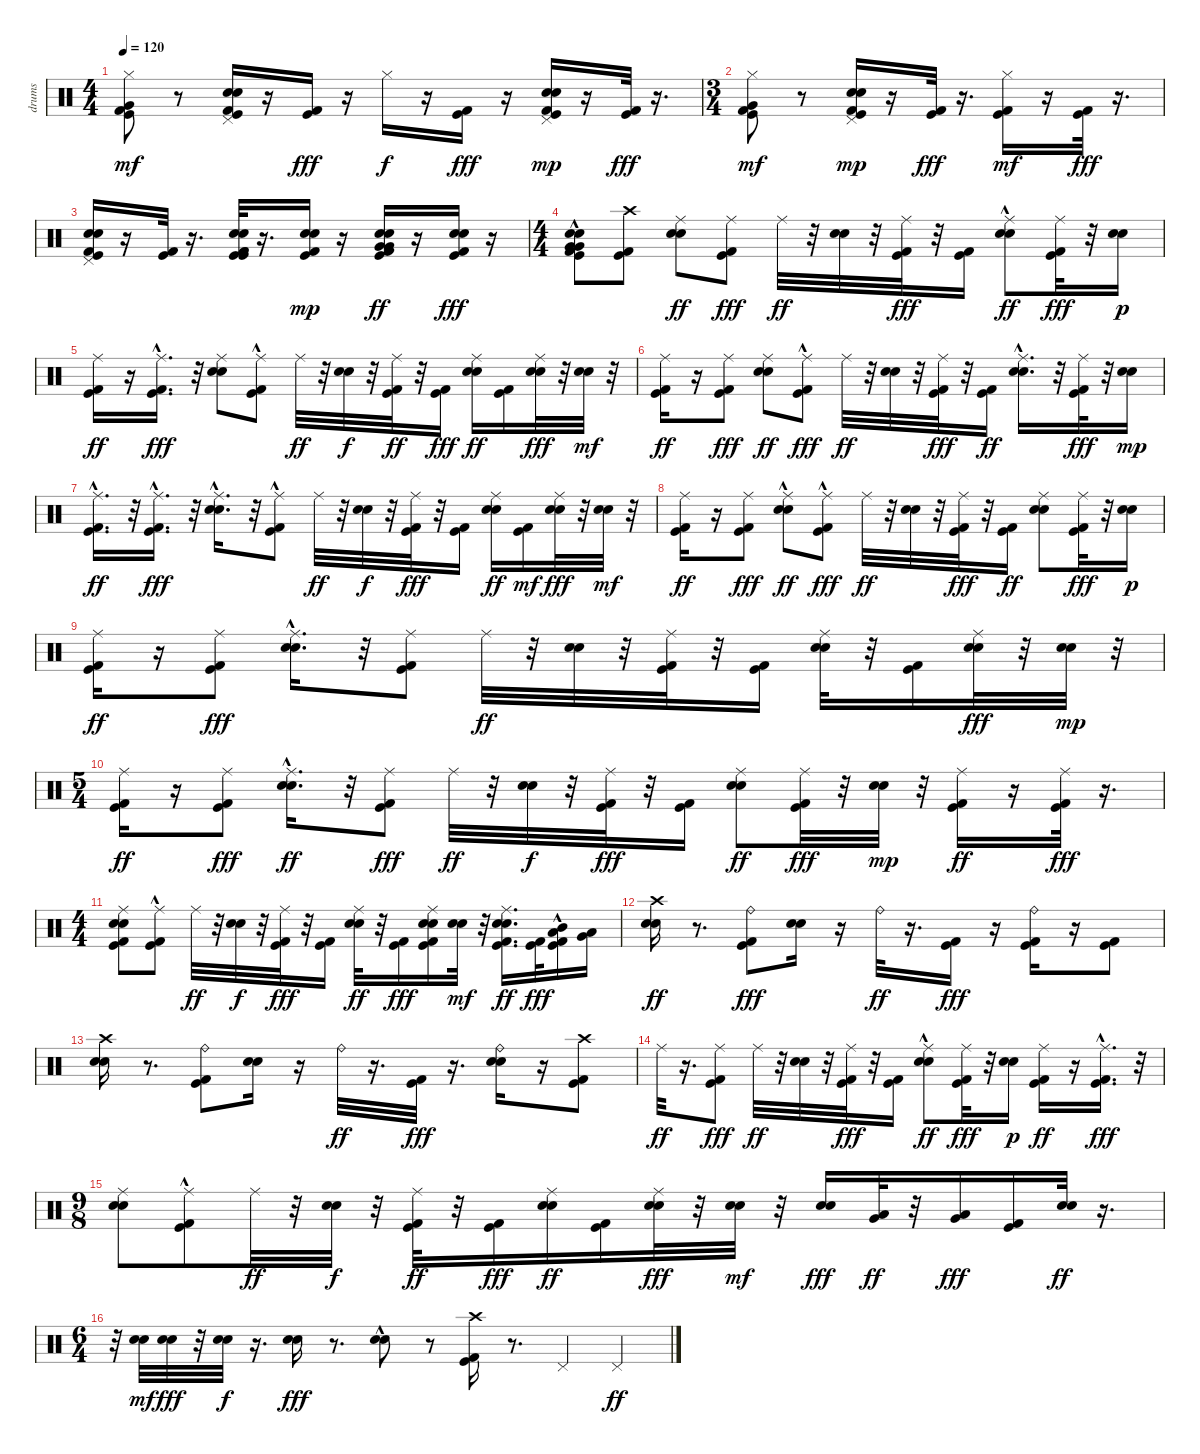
\track ("drums" "drums") {instrument percussion}
\staff {score}
\articulation defaults
\ts (4 4)
\tempo 120
\clef neutral
\ks c
("Very Low Tom (hit)" "Kick (hit)" "Kick (hit) 2" "Hi-Hat (closed)").8{dy mf} r.8 ("Electric Snare (hit)" "Snare (hit) 2" "Kick (hit)" "Kick (hit) 2" "Pedal Hi-Hat (hit)").16 r.16 ("Kick (hit)" "Kick (hit) 2").16{dy fff} r.16 "Hi-Hat (closed)".16{dy f} r.16 ("Kick (hit) 2" "Kick (hit)").16{dy fff} r.16 ("Snare (hit) 2" "Electric Snare (hit)" "Kick (hit) 2" "Kick (hit)" "Pedal Hi-Hat (hit)").16{dy mp} r.16 ("Kick (hit)" "Kick (hit) 2").32{dy fff} r.16{d} |
\ts (3 4)
("Kick (hit) 2" "Kick (hit)" "Very Low Tom (hit)" "Hi-Hat (closed)").8{dy mf} r.8 ("Snare (hit) 2" "Electric Snare (hit)" "Kick (hit) 2" "Kick (hit)" "Pedal Hi-Hat (hit)").16{dy mp} r.16 ("Kick (hit)" "Kick (hit) 2").32{dy fff} r.16{d} ("Kick (hit)" "Kick (hit) 2" "Hi-Hat (closed)").16{dy mf} r.16 ("Kick (hit)" "Kick (hit) 2").32{dy fff} r.16{d} |
("Pedal Hi-Hat (hit)" "Electric Snare (hit)" "Snare (hit) 2" "Kick (hit) 2" "Kick (hit)").16 r.16 ("Kick (hit) 2" "Kick (hit)").32 r.16{d} ("Electric Snare (hit)" "Kick (hit) 2" "Snare (hit) 2" "Kick (hit)" "Kick (hit) 2" "Kick (hit)").32 r.16{d} ("Electric Snare (hit)" "Snare (hit) 2" "Kick (hit)" "Kick (hit) 2").16{dy mp} r.16 ("Very Low Tom (hit)" "Electric Snare (hit)" "Snare (hit) 2" "Very Low Tom (hit)" "Kick (hit)" "Kick (hit) 2").16{dy ff} r.16 ("Snare (hit) 2" "Electric Snare (hit)" "Kick (hit) 2" "Kick (hit)").16{dy fff} r.16 |
\ts (4 4)
("Very Low Tom (hit)"{hac} "Kick (hit) 2"{hac} "Kick (hit)"{hac} "Snare (hit) 2"{hac} "Electric Snare (hit)" "Very Low Tom (hit)"{hac}).8 ("Kick (hit) 2" "Kick (hit)" "Crash high (hit)").8 ("Snare (hit) 2" "Electric Snare (hit)" "Ride (middle)").8{dy ff} ("Kick (hit) 2" "Kick (hit)" "Ride (middle)").8{dy fff} "Ride (middle)".32{dy ff} r.32 ("Snare (hit) 2" "Electric Snare (hit)").32 r.32 ("Kick (hit) 2" "Kick (hit)" "Ride (middle)").32{dy fff} r.32 ("Kick (hit) 2" "Kick (hit)").16 ("Electric Snare (hit)" "Snare (hit) 2"{hac} "Ride (middle)").8{dy ff} ("Kick (hit) 2" "Kick (hit)" "Ride (middle)").32{dy fff} r.32 ("Snare (hit) 2" "Electric Snare (hit)").16{dy p} |
("Kick (hit) 2" "Kick (hit)" "Ride (middle)").16{dy ff} r.16 ("Kick (hit) 2"{hac} "Kick (hit)"{hac} "Ride (middle)").16{d dy fff} r.32 ("Snare (hit) 2" "Electric Snare (hit)" "Ride (middle)").8 ("Kick (hit) 2"{hac} "Kick (hit)"{hac} "Ride (middle)").8 "Ride (middle)".32{dy ff} r.32 ("Snare (hit) 2" "Electric Snare (hit)").32{dy f} r.32 ("Kick (hit)" "Kick (hit) 2" "Ride (middle)").32{dy ff} r.32 ("Kick (hit) 2" "Kick (hit)").16{dy fff} ("Electric Snare (hit)" "Snare (hit) 2" "Ride (middle)").16{dy ff} ("Kick (hit) 2" "Kick (hit)").16 ("Snare (hit) 2" "Electric Snare (hit)" "Ride (middle)").32{dy fff} r.32 ("Snare (hit) 2" "Electric Snare (hit)").32{dy mf} r.32 |
("Kick (hit) 2" "Kick (hit)" "Ride (middle)").16{dy ff} r.16 ("Kick (hit) 2" "Kick (hit)" "Ride (middle)").8{dy fff} ("Snare (hit) 2" "Electric Snare (hit)" "Ride (middle)").8{dy ff} ("Kick (hit)"{hac} "Kick (hit) 2"{hac} "Ride (middle)").8{dy fff} "Ride (middle)".32{dy ff} r.32 ("Snare (hit) 2" "Electric Snare (hit)").32 r.32 ("Kick (hit) 2" "Kick (hit)" "Ride (middle)").32{dy fff} r.32 ("Kick (hit) 2" "Kick (hit)").16{dy ff} ("Snare (hit) 2"{hac} "Electric Snare (hit)"{hac} "Ride (middle)").16{d} r.32 ("Kick (hit) 2" "Kick (hit)" "Ride (middle)").32{dy fff} r.32 ("Snare (hit) 2" "Electric Snare (hit)").16{dy mp} |
("Kick (hit) 2"{hac} "Kick (hit)"{hac} "Ride (middle)").16{d dy ff} r.32 ("Kick (hit) 2"{hac} "Kick (hit)"{hac} "Ride (middle)").16{d dy fff} r.32 ("Snare (hit) 2"{hac} "Electric Snare (hit)"{hac} "Ride (middle)").16{d} r.32 ("Kick (hit)"{hac} "Kick (hit) 2"{hac} "Ride (middle)").8 "Ride (middle)".32{dy ff} r.32 ("Snare (hit) 2" "Electric Snare (hit)").32{dy f} r.32 ("Kick (hit)" "Kick (hit) 2" "Ride (middle)").32{dy fff} r.32 ("Kick (hit) 2" "Kick (hit)").16 ("Electric Snare (hit)" "Snare (hit) 2" "Ride (middle)").16{dy ff} ("Kick (hit) 2" "Kick (hit)").16{dy mf} ("Snare (hit) 2" "Electric Snare (hit)" "Ride (middle)").32{dy fff} r.32 ("Snare (hit) 2" "Electric Snare (hit)").32{dy mf} r.32 |
("Kick (hit) 2" "Kick (hit)" "Ride (middle)").16{dy ff} r.16 ("Kick (hit) 2" "Kick (hit)" "Ride (middle)").8{dy fff} ("Electric Snare (hit)" "Snare (hit) 2"{hac} "Ride (middle)").8{dy ff} ("Kick (hit) 2"{hac} "Kick (hit)"{hac} "Ride (middle)").8{dy fff} "Ride (middle)".32{dy ff} r.32 ("Snare (hit) 2" "Electric Snare (hit)").32 r.32 ("Kick (hit) 2" "Kick (hit)" "Ride (middle)").32{dy fff} r.32 ("Kick (hit) 2" "Kick (hit)").16{dy ff} ("Snare (hit) 2" "Electric Snare (hit)" "Ride (middle)").8 ("Kick (hit) 2" "Kick (hit)" "Ride (middle)").32{dy fff} r.32 ("Electric Snare (hit)" "Snare (hit) 2").16{dy p} |
("Kick (hit) 2" "Kick (hit)" "Ride (middle)").16{dy ff} r.16 ("Kick (hit) 2" "Kick (hit)" "Ride (middle)").8{dy fff} ("Snare (hit) 2"{hac} "Electric Snare (hit)"{hac} "Ride (middle)").16{d} r.32 ("Kick (hit) 2" "Kick (hit)" "Ride (middle)").8 "Ride (middle)".32{dy ff} r.32 ("Snare (hit) 2" "Electric Snare (hit)").32 r.32 ("Kick (hit) 2" "Kick (hit)" "Ride (middle)").32 r.32 ("Kick (hit) 2" "Kick (hit)").16 ("Electric Snare (hit)" "Snare (hit) 2" "Ride (middle)").32 r.32 ("Kick (hit) 2" "Kick (hit)").16 ("Snare (hit) 2" "Electric Snare (hit)" "Ride (middle)").32{dy fff} r.32 ("Snare (hit) 2" "Electric Snare (hit)").32{dy mp} r.32 |
\ts (5 4)
("Kick (hit) 2" "Kick (hit)" "Ride (middle)").16{dy ff} r.16 ("Kick (hit) 2" "Kick (hit)" "Ride (middle)").8{dy fff} ("Snare (hit) 2"{hac} "Electric Snare (hit)"{hac} "Ride (middle)").16{d dy ff} r.32 ("Kick (hit)" "Kick (hit) 2" "Ride (middle)").8{dy fff} "Ride (middle)".32{dy ff} r.32 ("Snare (hit) 2" "Electric Snare (hit)").32{dy f} r.32 ("Kick (hit) 2" "Kick (hit)" "Ride (middle)").32{dy fff} r.32 ("Kick (hit) 2" "Kick (hit)").16 ("Snare (hit) 2" "Electric Snare (hit)" "Ride (middle)").8{dy ff} ("Kick (hit) 2" "Kick (hit)" "Ride (middle)").32{dy fff} r.32 ("Snare (hit) 2" "Electric Snare (hit)").32{dy mp} r.32 ("Kick (hit) 2" "Kick (hit)" "Ride (middle)").16{dy ff} r.16 ("Kick (hit)" "Kick (hit) 2" "Ride (middle)").32{dy fff} r.16{d} |
\ts (4 4)
("Kick (hit) 2" "Kick (hit)" "Snare (hit) 2" "Electric Snare (hit)" "Ride (middle)").8 ("Kick (hit) 2"{hac} "Kick (hit)"{hac} "Ride (middle)").8 "Ride (middle)".32{dy ff} r.32 ("Snare (hit) 2" "Electric Snare (hit)").32{dy f} r.32 ("Kick (hit) 2" "Kick (hit)" "Ride (middle)").32{dy fff} r.32 ("Kick (hit)" "Kick (hit) 2").16 ("Snare (hit) 2" "Electric Snare (hit)" "Ride (middle)").32{dy ff} r.32 ("Kick (hit) 2" "Kick (hit)").16{dy fff} ("Kick (hit)" "Kick (hit) 2" "Electric Snare (hit)" "Snare (hit) 2" "Ride (middle)").16 ("Snare (hit) 2" "Electric Snare (hit)").32{dy mf} r.32 ("Electric Snare (hit)" "Snare (hit) 2" "Kick (hit)" "Kick (hit) 2" "Ride (middle)").16{d dy ff} ("Kick (hit)" "Kick (hit) 2").32{dy fff} ("Mid Tom (hit)" "Low Tom (hit)" "Kick (hit) 2"{hac} "Kick (hit)").16 ("Low Floor Tom (hit)" "Very Low Tom (hit)").16 |
("Electric Snare (hit)" "Crash high (hit)" "Snare (hit) 2").16{dy ff} r.8{d} ("Ride (bell)" "Kick (hit) 2" "Kick (hit)").8{dy fff} ("Electric Snare (hit)" "Snare (hit) 2").16 r.16 "Ride (bell)".32{dy ff} r.16{d} ("Kick (hit) 2" "Kick (hit)").16{dy fff} r.16 ("Ride (bell)" "Kick (hit) 2" "Kick (hit)").16 r.16 ("Kick (hit) 2" "Kick (hit)").8 |
("Crash high (hit)" "Electric Snare (hit)" "Snare (hit) 2").16 r.8{d} ("Ride (bell)" "Kick (hit) 2" "Kick (hit)").8 ("Electric Snare (hit)" "Snare (hit) 2").16 r.16 "Ride (bell)".32{dy ff} r.16{d} ("Kick (hit)" "Kick (hit) 2").32{dy fff} r.16{d} ("Ride (bell)" "Snare (hit) 2" "Electric Snare (hit)").16 r.16 ("Kick (hit) 2" "Kick (hit)" "Crash high (hit)").8 |
"Ride (middle)".32{dy ff} r.16{d} ("Kick (hit) 2" "Kick (hit)" "Ride (middle)").8{dy fff} "Ride (middle)".32{dy ff} r.32 ("Snare (hit) 2" "Electric Snare (hit)").32 r.32 ("Kick (hit) 2" "Kick (hit)" "Ride (middle)").32{dy fff} r.32 ("Kick (hit) 2" "Kick (hit)").16 ("Electric Snare (hit)" "Snare (hit) 2"{hac} "Ride (middle)").8{dy ff} ("Kick (hit) 2" "Kick (hit)" "Ride (middle)").32{dy fff} r.32 ("Snare (hit) 2" "Electric Snare (hit)").16{dy p} ("Kick (hit) 2" "Kick (hit)" "Ride (middle)").16{dy ff} r.16 ("Kick (hit) 2"{hac} "Kick (hit)"{hac} "Ride (middle)").16{d dy fff} r.32 |
\ts (9 8)
("Snare (hit) 2" "Electric Snare (hit)" "Ride (middle)").8 ("Kick (hit) 2"{hac} "Kick (hit)"{hac} "Ride (middle)").8 "Ride (middle)".32{dy ff} r.32 ("Snare (hit) 2" "Electric Snare (hit)").32{dy f} r.32 ("Kick (hit)" "Kick (hit) 2" "Ride (middle)").32{dy ff} r.32 ("Kick (hit) 2" "Kick (hit)").16{dy fff} ("Electric Snare (hit)" "Snare (hit) 2" "Ride (middle)").16{dy ff} ("Kick (hit) 2" "Kick (hit)").16 ("Snare (hit) 2" "Electric Snare (hit)" "Ride (middle)").32{dy fff} r.32 ("Snare (hit) 2" "Electric Snare (hit)").32{dy mf} r.32 ("Snare (hit) 2" "Electric Snare (hit)").16{dy fff} ("Very Low Tom (hit)" "Low Tom (hit)").32{dy ff} r.32 ("Very Low Tom (hit)" "Low Floor Tom (hit)").16{dy fff} ("Kick (hit)" "Kick (hit) 2").16 ("Electric Snare (hit)" "Snare (hit) 2").32{dy ff} r.16{d} |
\ts (6 4)
r.32 ("Electric Snare (hit)" "Snare (hit) 2").32{dy mf} ("Snare (hit) 2" "Electric Snare (hit)").32{dy fff} r.32 ("Snare (hit) 2" "Electric Snare (hit)").32{dy f} r.16{d} ("Snare (hit) 2" "Electric Snare (hit)").16{dy fff} r.8{d} ("Electric Snare (hit)" "Snare (hit) 2"{hac}).8 r.8 ("Crash high (hit)" "Kick (hit) 2" "Kick (hit)").16 r.8{d} "Pedal Hi-Hat (hit)".4 "Pedal Hi-Hat (hit)".4{dy ff}
